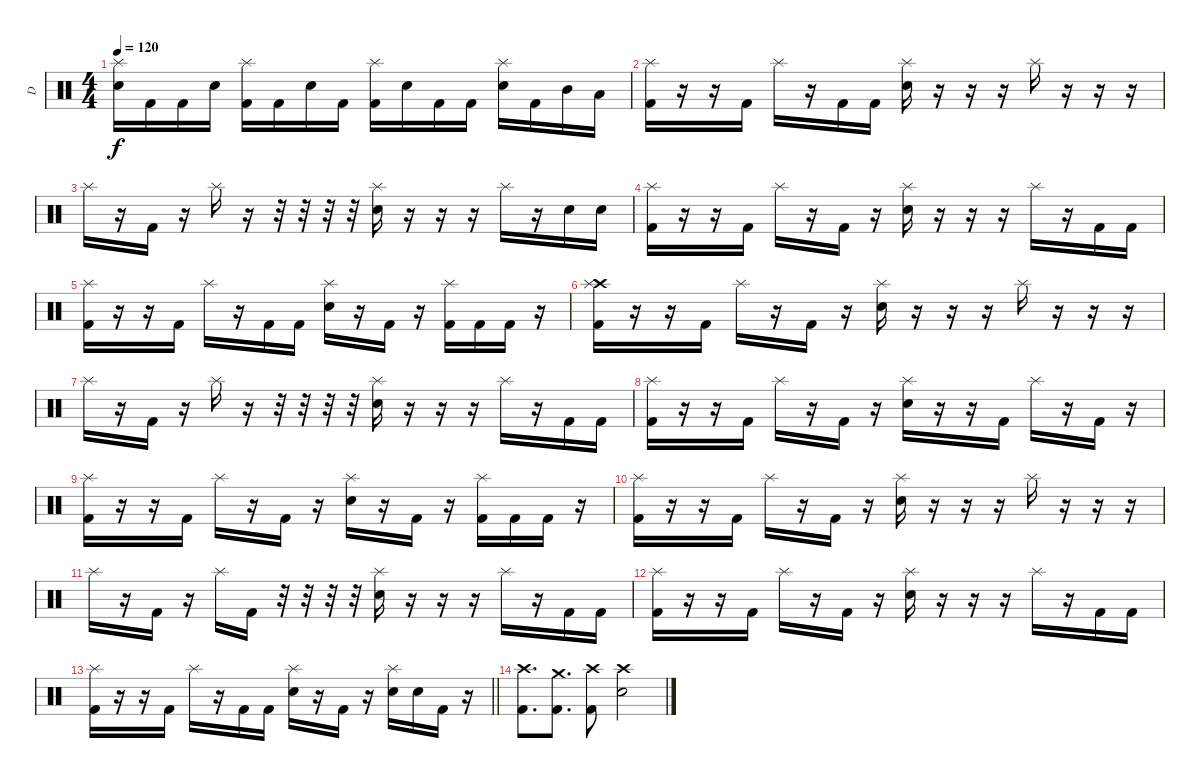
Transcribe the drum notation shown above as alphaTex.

\track ("D" "D") {instrument percussion}
\staff {score}
\articulation defaults
\ts (4 4)
\tempo 120
\clef neutral
\ks c
("Electric Snare (hit)" "Splash (hit)").16{dy f} "Kick (hit) 2".16 "Kick (hit) 2".16 "Electric Snare (hit)".16 ("Kick (hit) 2" "Splash (hit)").16 "Kick (hit) 2".16 "Electric Snare (hit)".16 "Kick (hit) 2".16 ("Kick (hit) 2" "Splash (hit)").16 "Electric Snare (hit)".16 "Kick (hit) 2".16 "Kick (hit) 2".16 ("Electric Snare (hit)" "Splash (hit)").16 "Kick (hit) 2".16 "Mid Tom (hit)".16 "Low Tom (hit)".16 |
("Kick (hit) 2" "Splash (hit)").16 r.16 r.16 "Kick (hit) 2".16 "Splash (hit)".16 r.16 "Kick (hit) 2".16 "Kick (hit) 2".16 ("Electric Snare (hit)" "Splash (hit)").16 r.16 r.16 r.16 "Splash (hit)".16 r.16 r.16 r.16 |
"Splash (hit)".16 r.16 "Kick (hit) 2".16 r.16 "Splash (hit)".16 r.16 r.32 r.32 r.32 r.32 ("Electric Snare (hit)" "Splash (hit)").16 r.16 r.16 r.16 "Splash (hit)".16 r.16 "Electric Snare (hit)".16 "Electric Snare (hit)".16 |
("Kick (hit) 2" "Splash (hit)").16 r.16 r.16 "Kick (hit) 2".16 "Splash (hit)".16 r.16 "Kick (hit) 2".16 r.16 ("Electric Snare (hit)" "Splash (hit)").16 r.16 r.16 r.16 "Splash (hit)".16 r.16 "Kick (hit) 2".16 "Kick (hit) 2".16 |
("Kick (hit) 2" "Splash (hit)").16 r.16 r.16 "Kick (hit) 2".16 "Splash (hit)".16 r.16 "Kick (hit) 2".16 "Kick (hit) 2".16 ("Electric Snare (hit)" "Splash (hit)").16 r.16 "Kick (hit) 2".16 r.16 ("Kick (hit) 2" "Splash (hit)").16 "Kick (hit) 2".16 "Kick (hit) 2".16 r.16 |
("Crash high (hit)" "Kick (hit) 2" "Splash (hit)").16 r.16 r.16 "Kick (hit) 2".16 "Splash (hit)".16 r.16 "Kick (hit) 2".16 r.16 ("Electric Snare (hit)" "Splash (hit)").16 r.16 r.16 r.16 "Splash (hit)".16 r.16 r.16 r.16 |
"Splash (hit)".16 r.16 "Kick (hit) 2".16 r.16 "Splash (hit)".16 r.16 r.32 r.32 r.32 r.32 ("Electric Snare (hit)" "Splash (hit)").16 r.16 r.16 r.16 "Splash (hit)".16 r.16 "Kick (hit) 2".16 "Kick (hit) 2".16 |
("Kick (hit) 2" "Splash (hit)").16 r.16 r.16 "Kick (hit) 2".16 "Splash (hit)".16 r.16 "Kick (hit) 2".16 r.16 ("Electric Snare (hit)" "Splash (hit)").16 r.16 r.16 "Kick (hit) 2".16 "Splash (hit)".16 r.16 "Kick (hit) 2".16 r.16 |
("Kick (hit) 2" "Splash (hit)").16 r.16 r.16 "Kick (hit) 2".16 "Splash (hit)".16 r.16 "Kick (hit) 2".16 r.16 ("Electric Snare (hit)" "Splash (hit)").16 r.16 "Kick (hit) 2".16 r.16 ("Kick (hit) 2" "Splash (hit)").16 "Kick (hit) 2".16 "Kick (hit) 2".16 r.16 |
("Kick (hit) 2" "Splash (hit)").16 r.16 r.16 "Kick (hit) 2".16 "Splash (hit)".16 r.16 "Kick (hit) 2".16 r.16 ("Electric Snare (hit)" "Splash (hit)").16 r.16 r.16 r.16 "Splash (hit)".16 r.16 r.16 r.16 |
"Splash (hit)".16 r.16 "Kick (hit) 2".16 r.16 "Splash (hit)".16 "Kick (hit) 2".16 r.32 r.32 r.32 r.32 ("Electric Snare (hit)" "Splash (hit)").16 r.16 r.16 r.16 "Splash (hit)".16 r.16 "Kick (hit) 2".16 "Kick (hit) 2".16 |
("Kick (hit) 2" "Splash (hit)").16 r.16 r.16 "Kick (hit) 2".16 "Splash (hit)".16 r.16 "Kick (hit) 2".16 r.16 ("Electric Snare (hit)" "Splash (hit)").16 r.16 r.16 r.16 "Splash (hit)".16 r.16 "Kick (hit) 2".16 "Kick (hit) 2".16 |
\barLineRight lightlight
("Kick (hit) 2" "Splash (hit)").16 r.16 r.16 "Kick (hit) 2".16 "Splash (hit)".16 r.16 "Kick (hit) 2".16 "Kick (hit) 2".16 ("Electric Snare (hit)" "Splash (hit)").16 r.16 "Kick (hit) 2".16 r.16 ("Electric Snare (hit)" "Splash (hit)").16 "Electric Snare (hit)".16 "Kick (hit) 2".16 r.16 |
("Crash high (hit)" "Kick (hit) 2").8{d} ("Crash medium (hit)" "Kick (hit) 2").8{d} ("Crash high (hit)" "Kick (hit) 2").8 ("Crash high (hit)" "Electric Snare (hit)").2
